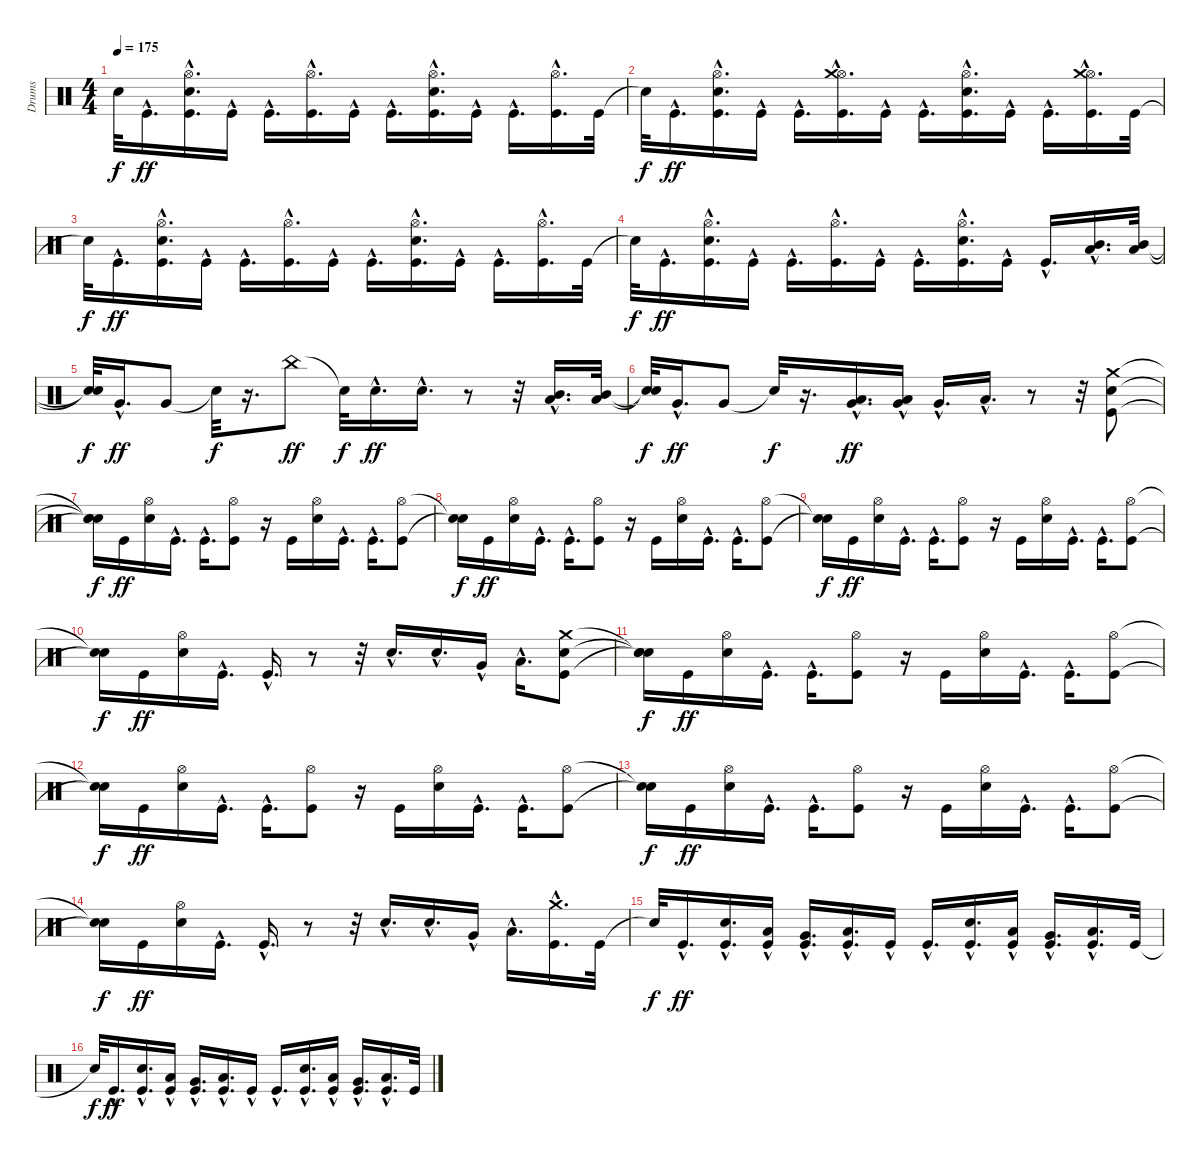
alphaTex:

\track ("Drums" "Drums") {instrument percussion}
\staff {score}
\articulation defaults
\ts (4 4)
\tempo 175
\clef neutral
\ks c "Snare (hit)"{t}.32{dy f} "Kick (hit)"{hac}.16{d dy ff}
("Kick (hit)"{hac} "Electric Snare (hit)"{hac} "Hi-Hat (open)"{hac}).16{d} "Kick (hit)"{hac}.16 "Kick (hit)"{hac}.16{d} ("Kick (hit)"{hac} "Hi-Hat (open)"{hac}).16{d} "Kick (hit)"{hac}.16 "Kick (hit)"{hac}.16{d} ("Kick (hit)"{hac} "Electric Snare (hit)"{hac} "Hi-Hat (open)"{hac}).16{d} "Kick (hit)"{hac}.16 "Kick (hit)"{hac}.16{d} ("Kick (hit)"{hac} "Hi-Hat (open)"{hac}).16{d} "Kick (hit)".32 |
"Snare (hit)"{t}.32{dy f} "Kick (hit)"{hac}.16{d dy ff} ("Kick (hit)"{hac} "Electric Snare (hit)"{hac} "Hi-Hat (open)"{hac}).16{d} "Kick (hit)"{hac}.16 "Kick (hit)"{hac}.16{d} ("Kick (hit)"{hac} "Hi-Hat (open)"{hac} "Crash medium (hit)"{hac}).16{d} "Kick (hit)"{hac}.16 "Kick (hit)"{hac}.16{d} ("Kick (hit)"{hac} "Electric Snare (hit)"{hac} "Hi-Hat (open)"{hac}).16{d} "Kick (hit)"{hac}.16 "Kick (hit)"{hac}.16{d} ("Kick (hit)"{hac} "Hi-Hat (open)"{hac} "Crash medium (hit)"{hac}).16{d} "Kick (hit)".32 |
"Snare (hit)"{t}.32{dy f} "Kick (hit)"{hac}.16{d dy ff} ("Kick (hit)"{hac} "Electric Snare (hit)"{hac} "Hi-Hat (open)"{hac}).16{d} "Kick (hit)"{hac}.16 "Kick (hit)"{hac}.16{d} ("Kick (hit)"{hac} "Hi-Hat (open)"{hac}).16{d} "Kick (hit)"{hac}.16 "Kick (hit)"{hac}.16{d} ("Kick (hit)"{hac} "Electric Snare (hit)"{hac} "Hi-Hat (open)"{hac}).16{d} "Kick (hit)"{hac}.16 "Kick (hit)"{hac}.16{d} ("Kick (hit)"{hac} "Hi-Hat (open)"{hac}).16{d} "Kick (hit)".32 |
"Snare (hit)"{t}.32{dy f} "Kick (hit)"{hac}.16{d dy ff} ("Kick (hit)"{hac} "Electric Snare (hit)"{hac} "Hi-Hat (open)"{hac}).16{d} "Kick (hit)"{hac}.16 "Kick (hit)"{hac}.16{d} ("Kick (hit)"{hac} "Hi-Hat (open)"{hac}).16{d} "Kick (hit)"{hac}.16 "Kick (hit)"{hac}.16{d} ("Kick (hit)"{hac} "Electric Snare (hit)"{hac} "Hi-Hat (open)"{hac}).16{d} "Kick (hit)"{hac}.16 "Kick (hit)"{hac}.16{d} ("Low Tom (hit)"{hac} "Mid Tom (hit)"{hac}).16{d} ("Low Tom (hit)" "Mid Tom (hit)").32 |
("Snare (hit)"{t} "Snare (hit)"{t}).32{dy f} "Very Low Tom (hit)"{hac}.16{d dy ff} "Very Low Tom (hit)".8 "Snare (hit)"{t}.32{dy f} r.16{d} "China (hit)".8{dy ff} "Snare (hit)"{t}.32{dy f} "Electric Snare (hit)"{hac}.16{d dy ff} "Electric Snare (hit)"{hac}.16{d} r.8 r.32 ("Low Tom (hit)"{hac} "Mid Tom (hit)"{hac}).16{d} ("Low Tom (hit)" "Mid Tom (hit)").32 |
("Snare (hit)"{t} "Snare (hit)"{t}).32{dy f} "Very Low Tom (hit)"{hac}.16{d dy ff} "Very Low Tom (hit)".8 "Snare (hit)"{t}.32{dy f} r.16{d} ("Very Low Tom (hit)"{hac} "Low Tom (hit)"{hac}).16{d dy ff} ("Very Low Tom (hit)"{hac} "Low Tom (hit)"{hac}).16 "Very Low Tom (hit)"{hac}.16{d} "Low Floor Tom (hit)"{hac}.16{d} r.8 r.32 ("Kick (hit)" "Electric Snare (hit)" "Crash medium (hit)").8 |
("Snare (hit)"{t} "Snare (hit)"{t} "Snare (hit)"{t}).16{dy f} "Kick (hit)".16{dy ff} ("Electric Snare (hit)" "Hi-Hat (open)").16 "Kick (hit)"{hac}.16{d} "Kick (hit)"{hac}.16{d} ("Kick (hit)" "Hi-Hat (open)").8 r.16 "Kick (hit)".16 ("Electric Snare (hit)" "Hi-Hat (open)").16 "Kick (hit)"{hac}.16{d} "Kick (hit)"{hac}.16{d} ("Kick (hit)" "Hi-Hat (open)").8 |
("Snare (hit)"{t} "Snare (hit)"{t}).16{dy f} "Kick (hit)".16{dy ff} ("Electric Snare (hit)" "Hi-Hat (open)").16 "Kick (hit)"{hac}.16{d} "Kick (hit)"{hac}.16{d} ("Kick (hit)" "Hi-Hat (open)").8 r.16 "Kick (hit)".16 ("Electric Snare (hit)" "Hi-Hat (open)").16 "Kick (hit)"{hac}.16{d} "Kick (hit)"{hac}.16{d} ("Kick (hit)" "Hi-Hat (open)").8 |
("Snare (hit)"{t} "Snare (hit)"{t}).16{dy f} "Kick (hit)".16{dy ff} ("Electric Snare (hit)" "Hi-Hat (open)").16 "Kick (hit)"{hac}.16{d} "Kick (hit)"{hac}.16{d} ("Kick (hit)" "Hi-Hat (open)").8 r.16 "Kick (hit)".16 ("Electric Snare (hit)" "Hi-Hat (open)").16 "Kick (hit)"{hac}.16{d} "Kick (hit)"{hac}.16{d} ("Kick (hit)" "Hi-Hat (open)").8 |
("Snare (hit)"{t} "Snare (hit)"{t}).16{dy f} "Kick (hit)".16{dy ff} ("Electric Snare (hit)" "Hi-Hat (open)").16 "Kick (hit)"{hac}.16{d} "Kick (hit)"{hac}.16{d} r.8 r.32 "Electric Snare (hit)"{hac}.16{d} "Electric Snare (hit)"{hac}.16{d} "Very Low Tom (hit)"{hac}.16 "Low Floor Tom (hit)"{hac}.16{d} ("Kick (hit)" "Electric Snare (hit)" "Crash medium (hit)").8 |
("Snare (hit)"{t} "Snare (hit)"{t} "Snare (hit)"{t}).16{dy f} "Kick (hit)".16{dy ff} ("Electric Snare (hit)" "Hi-Hat (open)").16 "Kick (hit)"{hac}.16{d} "Kick (hit)"{hac}.16{d} ("Kick (hit)" "Hi-Hat (open)").8 r.16 "Kick (hit)".16 ("Electric Snare (hit)" "Hi-Hat (open)").16 "Kick (hit)"{hac}.16{d} "Kick (hit)"{hac}.16{d} ("Kick (hit)" "Hi-Hat (open)").8 |
("Snare (hit)"{t} "Snare (hit)"{t}).16{dy f} "Kick (hit)".16{dy ff} ("Electric Snare (hit)" "Hi-Hat (open)").16 "Kick (hit)"{hac}.16{d} "Kick (hit)"{hac}.16{d} ("Kick (hit)" "Hi-Hat (open)").8 r.16 "Kick (hit)".16 ("Electric Snare (hit)" "Hi-Hat (open)").16 "Kick (hit)"{hac}.16{d} "Kick (hit)"{hac}.16{d} ("Kick (hit)" "Hi-Hat (open)").8 |
("Snare (hit)"{t} "Snare (hit)"{t}).16{dy f} "Kick (hit)".16{dy ff} ("Electric Snare (hit)" "Hi-Hat (open)").16 "Kick (hit)"{hac}.16{d} "Kick (hit)"{hac}.16{d} ("Kick (hit)" "Hi-Hat (open)").8 r.16 "Kick (hit)".16 ("Electric Snare (hit)" "Hi-Hat (open)").16 "Kick (hit)"{hac}.16{d} "Kick (hit)"{hac}.16{d} ("Kick (hit)" "Hi-Hat (open)").8 |
("Snare (hit)"{t} "Snare (hit)"{t}).16{dy f} "Kick (hit)".16{dy ff} ("Electric Snare (hit)" "Hi-Hat (open)").16 "Kick (hit)"{hac}.16{d} "Kick (hit)"{hac}.16{d} r.8 r.32 "Electric Snare (hit)"{hac}.16{d} "Electric Snare (hit)"{hac}.16{d} "Very Low Tom (hit)"{hac}.16 "Low Floor Tom (hit)"{hac}.16{d} ("Kick (hit)"{hac} "Crash medium (hit)"{hac}).16{d} "Kick (hit)".32 |
"Snare (hit)"{t}.32{dy f} "Kick (hit)"{hac}.16{d dy ff} ("Kick (hit)"{hac} "Electric Snare (hit)"{hac}).16{d} ("Kick (hit)"{hac} "Low Tom (hit)"{hac}).16 ("Kick (hit)"{hac} "Very Low Tom (hit)"{hac}).16{d} ("Kick (hit)"{hac} "Low Floor Tom (hit)"{hac}).16{d} "Kick (hit)"{hac}.16 "Kick (hit)"{hac}.16{d} ("Kick (hit)"{hac} "Electric Snare (hit)"{hac}).16{d} ("Kick (hit)"{hac} "Low Tom (hit)"{hac}).16 ("Kick (hit)"{hac} "Very Low Tom (hit)"{hac}).16{d} ("Kick (hit)"{hac} "Low Floor Tom (hit)"{hac}).16{d} "Kick (hit)".32 |
"Snare (hit)"{t}.32{dy f} "Kick (hit)"{hac}.16{d dy ff} ("Kick (hit)"{hac} "Electric Snare (hit)"{hac}).16{d} ("Kick (hit)"{hac} "Low Tom (hit)"{hac}).16 ("Kick (hit)"{hac} "Very Low Tom (hit)"{hac}).16{d} ("Kick (hit)"{hac} "Low Floor Tom (hit)"{hac}).16{d} "Kick (hit)"{hac}.16 "Kick (hit)"{hac}.16{d} ("Kick (hit)"{hac} "Electric Snare (hit)"{hac}).16{d} ("Kick (hit)"{hac} "Low Tom (hit)"{hac}).16 ("Kick (hit)"{hac} "Very Low Tom (hit)"{hac}).16{d} ("Kick (hit)"{hac} "Low Floor Tom (hit)"{hac}).16{d} "Kick (hit)".32
